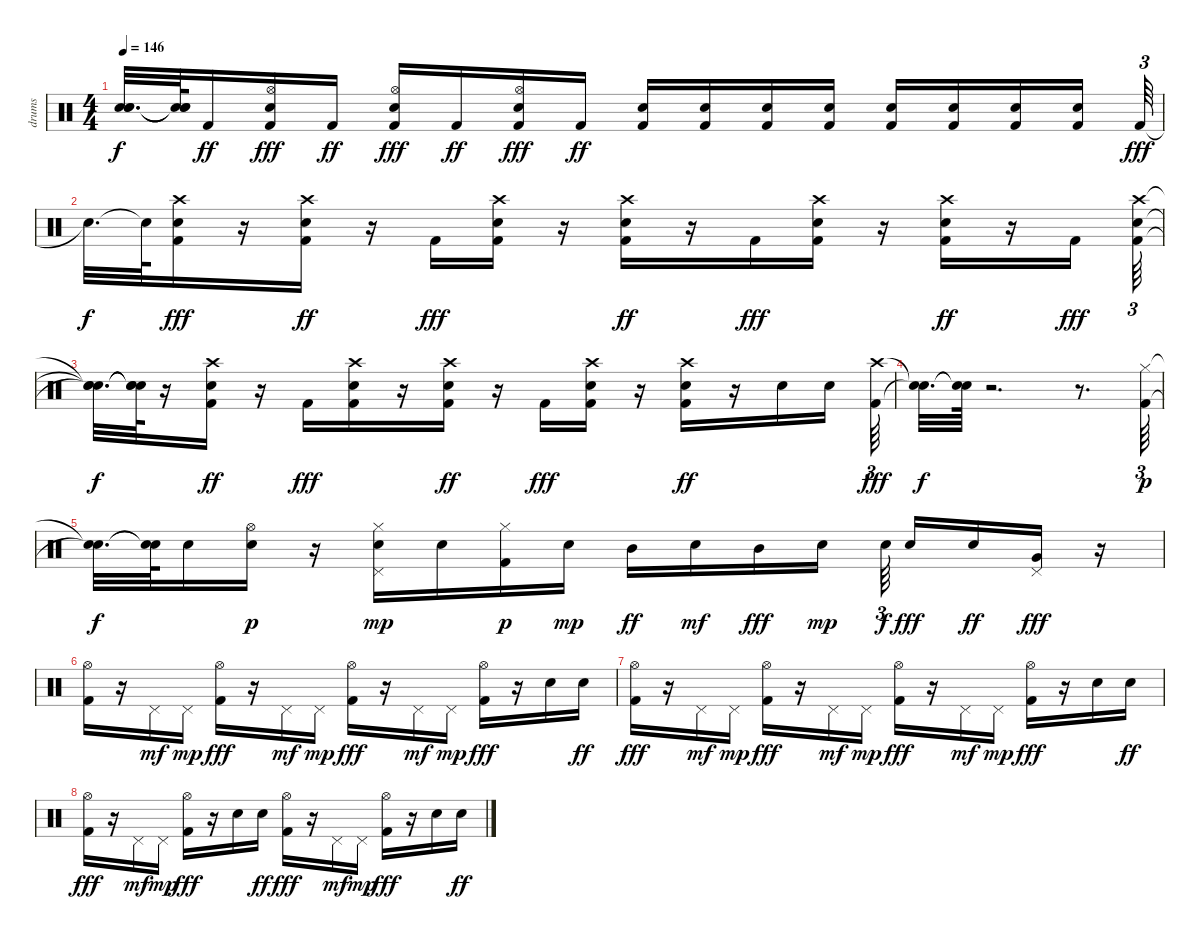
\track ("drums" "drums") {instrument percussion}
\staff {score}
\articulation defaults
\ts (4 4)
\tempo 146
\clef neutral
\ks c
("Snare (hit)"{t} "Snare (hit)"{t} "Snare (hit)"{t}).32{d dy f} ("Snare (hit)"{t} "Snare (hit)"{t} "Snare (hit)"{t}).64 "Kick (hit) 2".16{dy ff} ("Hi-Hat (open)" "Electric Snare (hit)" "Kick (hit) 2").16{dy fff} "Kick (hit) 2".16{dy ff} ("Hi-Hat (open)" "Electric Snare (hit)" "Kick (hit) 2").16{dy fff} "Kick (hit) 2".16{dy ff} ("Hi-Hat (open)" "Electric Snare (hit)" "Kick (hit) 2").16{dy fff} "Kick (hit) 2".16{dy ff} ("Kick (hit) 2" "Electric Snare (hit)").16 ("Kick (hit) 2" "Electric Snare (hit)").16 ("Kick (hit) 2" "Electric Snare (hit)").16 ("Kick (hit) 2" "Electric Snare (hit)").16 ("Kick (hit) 2" "Electric Snare (hit)").16 ("Kick (hit) 2" "Electric Snare (hit)").16 ("Kick (hit) 2" "Electric Snare (hit)").16 ("Kick (hit) 2" "Electric Snare (hit)").16 "Kick (hit) 2".64{tu (3 2) dy fff} |
"Snare (hit)"{t}.32{d dy f} "Snare (hit)"{t}.64 ("Electric Snare (hit)" "Crash high (hit)" "Kick (hit) 2").16{dy fff} r.16 ("Kick (hit) 2" "Crash high (hit)" "Electric Snare (hit)").16{dy ff} r.16 "Kick (hit) 2".16{dy fff} ("Electric Snare (hit)" "Crash high (hit)" "Kick (hit) 2").16 r.16 ("Kick (hit) 2" "Crash high (hit)" "Electric Snare (hit)").16{dy ff} r.16 "Kick (hit) 2".16{dy fff} ("Electric Snare (hit)" "Crash high (hit)" "Kick (hit) 2").16 r.16 ("Kick (hit) 2" "Crash high (hit)" "Electric Snare (hit)").16{dy ff} r.16 "Kick (hit) 2".16{dy fff} ("Electric Snare (hit)" "Crash high (hit)" "Kick (hit) 2").64{tu (3 2)} |
("Snare (hit)"{t} "Snare (hit)"{t} "Snare (hit)"{t}).32{d dy f} ("Snare (hit)"{t} "Snare (hit)"{t} "Snare (hit)"{t}).64 r.16 ("Kick (hit) 2" "Crash high (hit)" "Electric Snare (hit)").16{dy ff} r.16 "Kick (hit) 2".16{dy fff} ("Electric Snare (hit)" "Crash high (hit)" "Kick (hit) 2").16 r.16 ("Kick (hit) 2" "Crash high (hit)" "Electric Snare (hit)").16{dy ff} r.16 "Kick (hit) 2".16{dy fff} ("Electric Snare (hit)" "Crash high (hit)" "Kick (hit) 2").16 r.16 ("Kick (hit) 2" "Crash high (hit)" "Electric Snare (hit)").16{dy ff} r.16 "Electric Snare (hit)".16 "Electric Snare (hit)".16 ("Crash high (hit)" "Kick (hit) 2").64{tu (3 2) dy fff} |
("Snare (hit)"{t} "Snare (hit)"{t}).32{d dy f} ("Snare (hit)"{t} "Snare (hit)"{t}).64 r.2{d} r.8{d} ("Kick (hit) 2" "Hi-Hat (closed)").64{tu (3 2) dy p} |
("Snare (hit)"{t} "Snare (hit)"{t}).32{d dy f} ("Snare (hit)"{t} "Snare (hit)"{t}).64 "Snare (hit) 2".16 ("Snare (hit) 2" "Hi-Hat (open)").16{dy p} r.16 ("Pedal Hi-Hat (hit)" "Electric Snare (hit)" "Hi-Hat (closed)").16{dy mp} "Snare (hit) 2".16 ("Kick (hit) 2" "Hi-Hat (closed)").16{dy p} "Snare (hit) 2".16{dy mp} "Mid Tom (hit)".16{dy ff} "Snare (hit) 2".16{dy mf} "Mid Tom (hit)".16{dy fff} "Snare (hit) 2".16{dy mp} "Snare (hit) 2".64{tu (3 2) dy f beam splitsecondary} "Snare (hit) 2".16{dy fff} "Electric Snare (hit)".16{dy ff} ("Very Low Tom (hit)" "Pedal Hi-Hat (hit)").16{dy fff} r.16 |
("Hi-Hat (open)" "Kick (hit) 2").16 r.16 "Pedal Hi-Hat (hit)".16{dy mf} "Pedal Hi-Hat (hit)".16{dy mp} ("Hi-Hat (open)" "Kick (hit) 2").16{dy fff} r.16 "Pedal Hi-Hat (hit)".16{dy mf} "Pedal Hi-Hat (hit)".16{dy mp} ("Hi-Hat (open)" "Kick (hit) 2").16{dy fff} r.16 "Pedal Hi-Hat (hit)".16{dy mf} "Pedal Hi-Hat (hit)".16{dy mp} ("Hi-Hat (open)" "Kick (hit) 2").16{dy fff} r.16 "Electric Snare (hit)".16 "Electric Snare (hit)".16{dy ff} |
("Hi-Hat (open)" "Kick (hit) 2").16{dy fff} r.16 "Pedal Hi-Hat (hit)".16{dy mf} "Pedal Hi-Hat (hit)".16{dy mp} ("Hi-Hat (open)" "Kick (hit) 2").16{dy fff} r.16 "Pedal Hi-Hat (hit)".16{dy mf} "Pedal Hi-Hat (hit)".16{dy mp} ("Hi-Hat (open)" "Kick (hit) 2").16{dy fff} r.16 "Pedal Hi-Hat (hit)".16{dy mf} "Pedal Hi-Hat (hit)".16{dy mp} ("Hi-Hat (open)" "Kick (hit) 2").16{dy fff} r.16 "Electric Snare (hit)".16 "Electric Snare (hit)".16{dy ff} |
("Hi-Hat (open)" "Kick (hit) 2").16{dy fff} r.16 "Pedal Hi-Hat (hit)".16{dy mf} "Pedal Hi-Hat (hit)".16{dy mp} ("Hi-Hat (open)" "Kick (hit) 2").16{dy fff} r.16 "Electric Snare (hit)".16 "Electric Snare (hit)".16{dy ff} ("Hi-Hat (open)" "Kick (hit) 2").16{dy fff} r.16 "Pedal Hi-Hat (hit)".16{dy mf} "Pedal Hi-Hat (hit)".16{dy mp} ("Hi-Hat (open)" "Kick (hit) 2").16{dy fff} r.16 "Electric Snare (hit)".16 "Electric Snare (hit)".16{dy ff}
